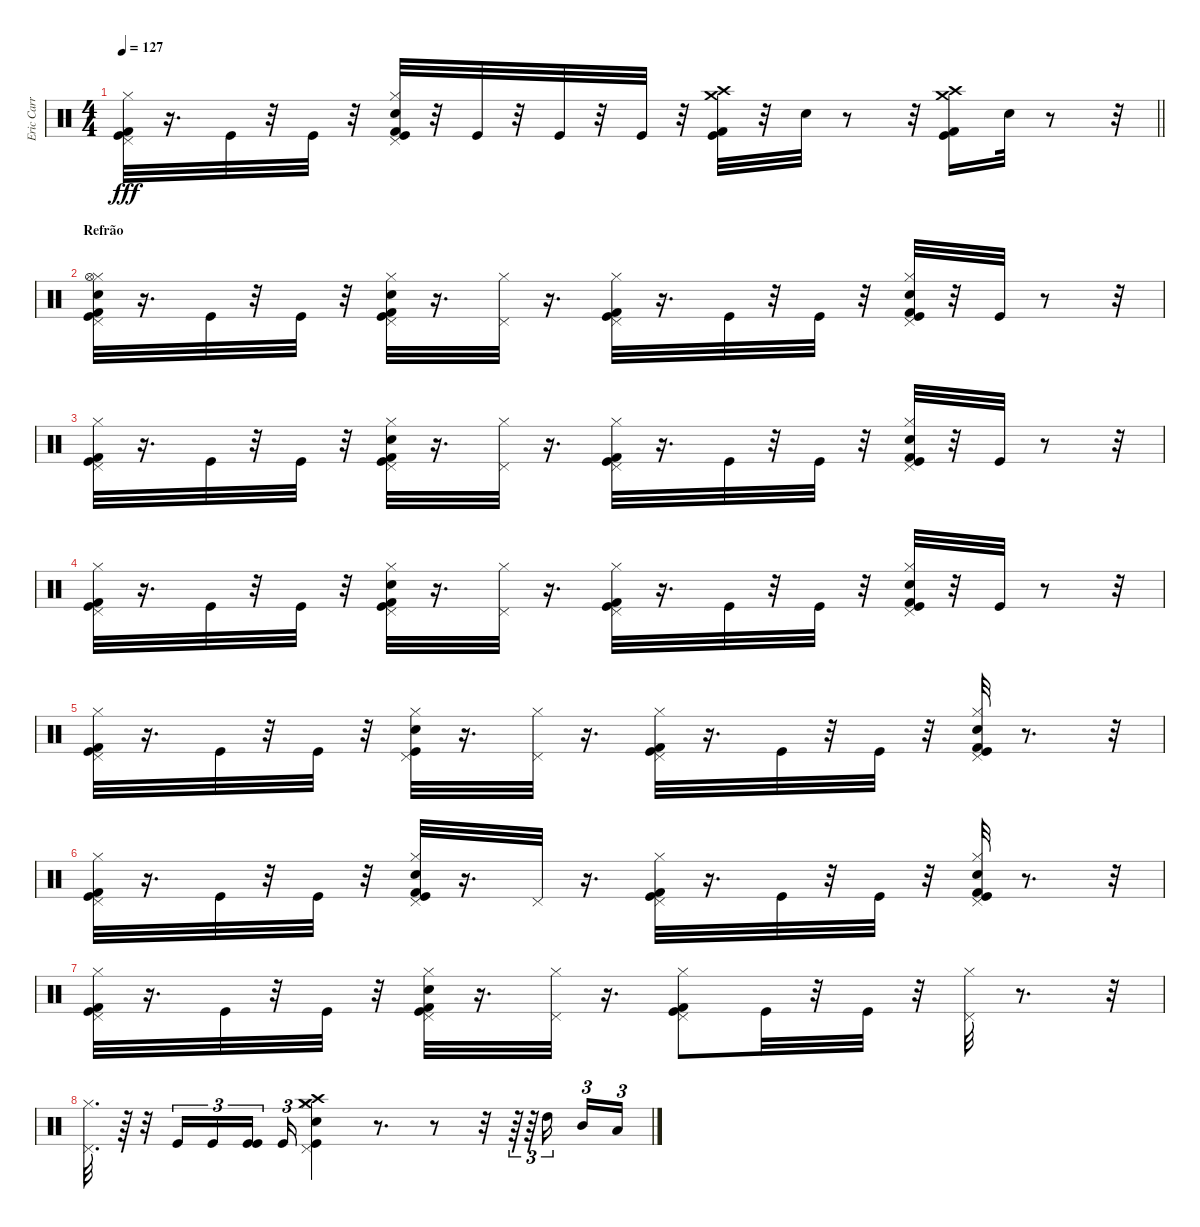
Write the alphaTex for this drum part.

\track ("Eric Carr - Bateria" "Eric Carr ") {instrument percussion}
\staff {score}
\articulation defaults
\ts (4 4)
\tempo 127
\clef neutral
\barLineRight lightlight
\ks c
("Kick (hit) 2" "Kick (hit)" "Pedal Hi-Hat (hit)" "Hi-Hat (closed)").32{dy fff} r.16{d} "Kick (hit)".32 r.32 "Kick (hit)".32 r.32 ("Kick (hit)" "Pedal Hi-Hat (hit)" "Hi-Hat (closed)" "Kick (hit) 2" "Snare (hit) 2").32 r.32 "Kick (hit)".32 r.32 "Kick (hit)".32 r.32 "Kick (hit)".32 r.32 ("Kick (hit)" "Kick (hit) 2" "Crash medium (hit)" "Crash high (hit)").32 r.32 "Snare (hit) 2".32 r.8 r.32 ("Kick (hit)" "Kick (hit) 2" "Crash medium (hit)" "Crash high (hit)").16 "Snare (hit) 2".32 r.8 r.32 |
\section ("" "Refrão")
("Hi-Hat (closed)" "Kick (hit) 2" "Snare (hit) 2" "Kick (hit)" "Pedal Hi-Hat (hit)" "Hi-Hat (open)").32 r.16{d} "Kick (hit)".32 r.32 "Kick (hit)".32 r.32 ("Kick (hit) 2" "Hi-Hat (closed)" "Pedal Hi-Hat (hit)" "Kick (hit)" "Snare (hit) 2").32 r.16{d} ("Hi-Hat (closed)" "Pedal Hi-Hat (hit)").32 r.16{d} ("Kick (hit)" "Hi-Hat (closed)" "Pedal Hi-Hat (hit)" "Kick (hit) 2").32 r.16{d} "Kick (hit)".32 r.32 "Kick (hit)".32 r.32 ("Hi-Hat (closed)" "Snare (hit) 2" "Kick (hit)" "Kick (hit) 2" "Pedal Hi-Hat (hit)").32 r.32 "Kick (hit)".32 r.8 r.32 |
("Kick (hit) 2" "Kick (hit)" "Hi-Hat (closed)" "Pedal Hi-Hat (hit)").32 r.16{d} "Kick (hit)".32 r.32 "Kick (hit)".32 r.32 ("Pedal Hi-Hat (hit)" "Snare (hit) 2" "Kick (hit) 2" "Kick (hit)" "Hi-Hat (closed)").32 r.16{d} ("Pedal Hi-Hat (hit)" "Hi-Hat (closed)").32 r.16{d} ("Kick (hit) 2" "Kick (hit)" "Pedal Hi-Hat (hit)" "Hi-Hat (closed)").32 r.16{d} "Kick (hit)".32 r.32 "Kick (hit)".32 r.32 ("Kick (hit)" "Snare (hit) 2" "Kick (hit) 2" "Hi-Hat (closed)" "Pedal Hi-Hat (hit)").32 r.32 "Kick (hit)".32 r.8 r.32 |
("Kick (hit) 2" "Pedal Hi-Hat (hit)" "Kick (hit)" "Hi-Hat (closed)").32 r.16{d} "Kick (hit)".32 r.32 "Kick (hit)".32 r.32 ("Pedal Hi-Hat (hit)" "Snare (hit) 2" "Kick (hit) 2" "Hi-Hat (closed)" "Kick (hit)").32 r.16{d} ("Pedal Hi-Hat (hit)" "Hi-Hat (closed)").32 r.16{d} ("Hi-Hat (closed)" "Pedal Hi-Hat (hit)" "Kick (hit)" "Kick (hit) 2").32 r.16{d} "Kick (hit)".32 r.32 "Kick (hit)".32 r.32 ("Snare (hit) 2" "Kick (hit)" "Kick (hit) 2" "Pedal Hi-Hat (hit)" "Hi-Hat (closed)").32 r.32 "Kick (hit)".32 r.8 r.32 |
("Kick (hit) 2" "Hi-Hat (closed)" "Kick (hit)" "Pedal Hi-Hat (hit)").32 r.16{d} "Kick (hit)".32 r.32 "Kick (hit)".32 r.32 ("Kick (hit)" "Snare (hit) 2" "Pedal Hi-Hat (hit)" "Hi-Hat (closed)").32 r.16{d} ("Pedal Hi-Hat (hit)" "Hi-Hat (closed)").32 r.16{d} ("Kick (hit) 2" "Kick (hit)" "Hi-Hat (closed)" "Pedal Hi-Hat (hit)").32 r.16{d} "Kick (hit)".32 r.32 "Kick (hit)".32 r.32 ("Pedal Hi-Hat (hit)" "Kick (hit) 2" "Kick (hit)" "Hi-Hat (closed)" "Snare (hit) 2").32 r.8{d} r.32 |
("Hi-Hat (closed)" "Kick (hit) 2" "Pedal Hi-Hat (hit)" "Kick (hit)").32 r.16{d} "Kick (hit)".32 r.32 "Kick (hit)".32 r.32 ("Kick (hit) 2" "Hi-Hat (closed)" "Kick (hit)" "Snare (hit) 2" "Pedal Hi-Hat (hit)").32 r.16{d} "Pedal Hi-Hat (hit)".32 r.16{d} ("Hi-Hat (closed)" "Pedal Hi-Hat (hit)" "Kick (hit)" "Kick (hit) 2").32 r.16{d} "Kick (hit)".32 r.32 "Kick (hit)".32 r.32 ("Kick (hit) 2" "Kick (hit)" "Hi-Hat (closed)" "Snare (hit) 2" "Pedal Hi-Hat (hit)").32 r.8{d} r.32 |
("Kick (hit) 2" "Pedal Hi-Hat (hit)" "Hi-Hat (closed)" "Kick (hit)").32 r.16{d} "Kick (hit)".32 r.32 "Kick (hit)".32 r.32 ("Pedal Hi-Hat (hit)" "Hi-Hat (closed)" "Kick (hit)" "Kick (hit) 2" "Snare (hit) 2").32 r.16{d} ("Hi-Hat (closed)" "Pedal Hi-Hat (hit)").32 r.16{d} ("Hi-Hat (closed)" "Pedal Hi-Hat (hit)" "Kick (hit)" "Kick (hit) 2").8 "Kick (hit)".32 r.32 "Kick (hit)".32 r.32 ("Pedal Hi-Hat (hit)" "Hi-Hat (closed)").32 r.8{d} r.32 |
("Hi-Hat (closed)" "Pedal Hi-Hat (hit)").32{d} r.64 r.32 "Kick (hit)".16{tu (3 2)} "Kick (hit)".16{tu (3 2)} ("Kick (hit)" "Kick (hit)").16{tu (3 2) beam splitsecondary} "Kick (hit)".16{tu (3 2)} ("Crash medium (hit)" "Pedal Hi-Hat (hit)" "Snare (hit) 2" "Kick (hit)" "Crash high (hit)" "Hi-Hat (closed)").4 r.8{d} r.8 r.32 r.64{tu (3 2)} r.64{tu (3 2)} "High Tom (hit)".16{tu (3 2) beam splitsecondary} "Mid Tom (hit)".16{tu (3 2)} "Low Tom (hit)".16{tu (3 2)}
